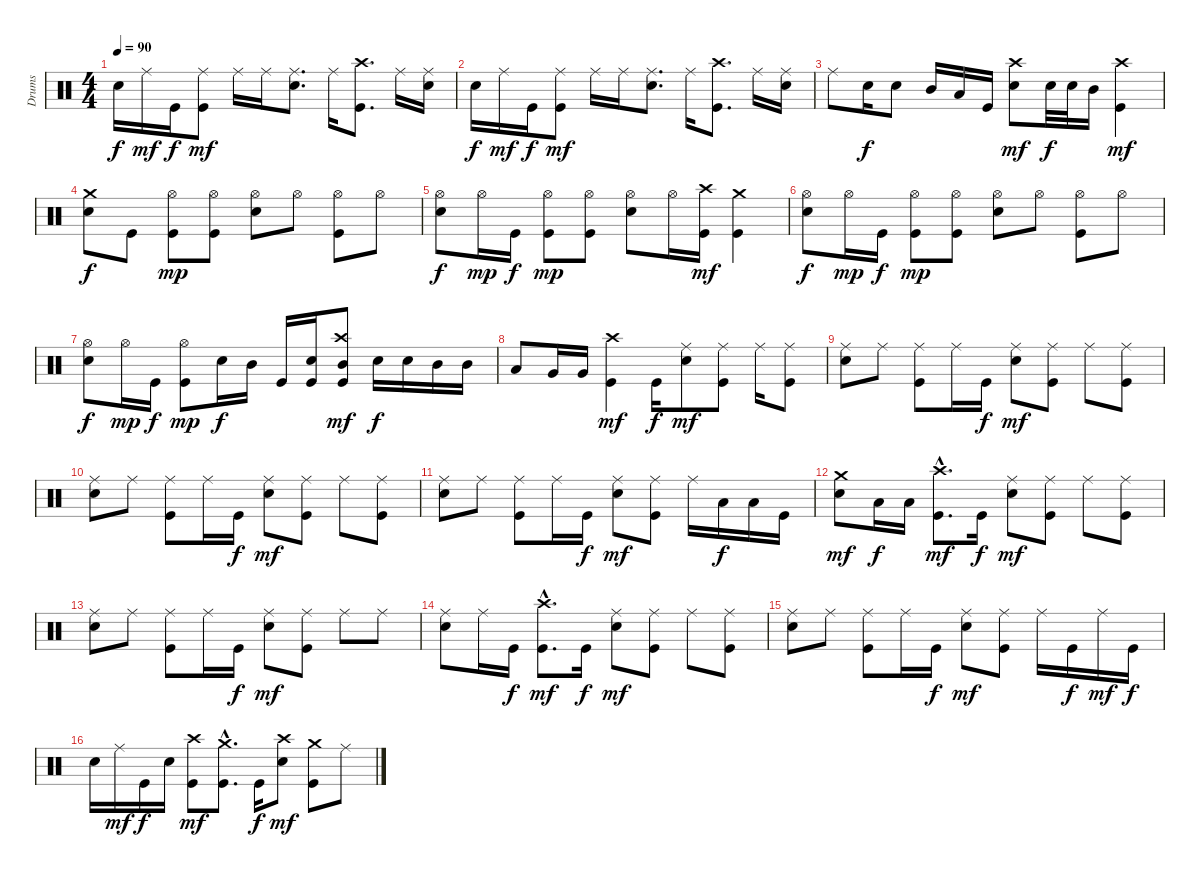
\track ("Drums" "Drums") {instrument percussion}
\staff {score}
\articulation defaults
\ts (4 4)
\tempo 90
\clef neutral
\ks c "Snare (hit) 2".16{dy f} "Ride (middle)".16{dy mf} "Kick (hit)".16{dy f}
("Ride (middle)" "Kick (hit)").8{dy mf} "Ride (middle)".16 "Ride (middle)".16 ("Ride (middle)" "Snare (hit) 2").8{d} "Ride (middle)".16 ("Crash high (hit)" "Kick (hit)").8{d} "Ride (middle)".16 ("Ride (middle)" "Snare (hit) 2").16 |
"Snare (hit) 2".16{dy f} "Ride (middle)".16{dy mf} "Kick (hit)".16{dy f} ("Ride (middle)" "Kick (hit)").8{dy mf} "Ride (middle)".16 "Ride (middle)".16 ("Ride (middle)" "Snare (hit) 2").8{d} "Ride (middle)".16 ("Crash high (hit)" "Kick (hit)").8{d} "Ride (middle)".16 ("Ride (middle)" "Snare (hit) 2").16 |
"Ride (middle)".8 "Snare (hit) 2".16{dy f} "Snare (hit) 2".8 "Mid Tom (hit)".16 "Low Tom (hit)".16 "Kick (hit)".16 ("Crash high (hit)" "Snare (hit) 2").8{dy mf} "Snare (hit) 2".32{dy f} "Snare (hit) 2".32 "Mid Tom (hit)".16 ("Crash high (hit)" "Kick (hit)").4{dy mf} |
("Crash medium (hit)" "Snare (hit) 2").8{dy f} "Kick (hit)".8 ("Hi-Hat (open)" "Kick (hit)").8{dy mp} ("Hi-Hat (open)" "Kick (hit)").8 ("Hi-Hat (open)" "Snare (hit) 2").8 "Hi-Hat (open)".8 ("Hi-Hat (open)" "Kick (hit)").8 "Hi-Hat (open)".8 |
("Hi-Hat (open)" "Snare (hit) 2").8{dy f} "Hi-Hat (open)".16{dy mp} "Kick (hit)".16{dy f} ("Hi-Hat (open)" "Kick (hit)").8{dy mp} ("Hi-Hat (open)" "Kick (hit)").8 ("Hi-Hat (open)" "Snare (hit) 2").8 "Hi-Hat (open)".16 ("Crash high (hit)" "Kick (hit)").16{dy mf} ("Crash medium (hit)" "Kick (hit)").4 |
("Hi-Hat (open)" "Snare (hit) 2").8{dy f} "Hi-Hat (open)".16{dy mp} "Kick (hit)".16{dy f} ("Hi-Hat (open)" "Kick (hit)").8{dy mp} ("Hi-Hat (open)" "Kick (hit)").8 ("Hi-Hat (open)" "Snare (hit) 2").8 "Hi-Hat (open)".8 ("Hi-Hat (open)" "Kick (hit)").8 "Hi-Hat (open)".8 |
("Hi-Hat (open)" "Snare (hit) 2").8{dy f} "Hi-Hat (open)".16{dy mp} "Kick (hit)".16{dy f} ("Hi-Hat (open)" "Kick (hit)").8{dy mp} "Snare (hit) 2".16{dy f} "Mid Tom (hit)".16 "Kick (hit)".16 ("Snare (hit) 2" "Kick (hit)").16 ("Crash high (hit)" "Kick (hit)" "Mid Tom (hit)").8{dy mf} "Snare (hit) 2".16{dy f} "Snare (hit) 2".16 "Mid Tom (hit)".16 "Mid Tom (hit)".16 |
"Low Tom (hit)".8 "Very Low Tom (hit)".16 "Very Low Tom (hit)".16 ("Crash high (hit)" "Kick (hit)").4{dy mf} "Kick (hit)".16{dy f} ("Ride (middle)" "Snare (hit) 2").8{dy mf} ("Ride (middle)" "Kick (hit)").8 "Ride (middle)".16 ("Ride (middle)" "Kick (hit)").8 |
("Ride (middle)" "Snare (hit) 2").8 "Ride (middle)".8 ("Ride (middle)" "Kick (hit)").8 "Ride (middle)".16 "Kick (hit)".16{dy f} ("Ride (middle)" "Snare (hit) 2").8{dy mf} ("Ride (middle)" "Kick (hit)").8 "Ride (middle)".8 ("Ride (middle)" "Kick (hit)").8 |
("Ride (middle)" "Snare (hit) 2").8 "Ride (middle)".8 ("Ride (middle)" "Kick (hit)").8 "Ride (middle)".16 "Kick (hit)".16{dy f} ("Ride (middle)" "Snare (hit) 2").8{dy mf} ("Ride (middle)" "Kick (hit)").8 "Ride (middle)".8 ("Ride (middle)" "Kick (hit)").8 |
("Ride (middle)" "Snare (hit) 2").8 "Ride (middle)".8 ("Ride (middle)" "Kick (hit)").8 "Ride (middle)".16 "Kick (hit)".16{dy f} ("Ride (middle)" "Snare (hit) 2").8{dy mf} ("Ride (middle)" "Kick (hit)").8 "Ride (middle)".16 "Low Tom (hit)".16{dy f} "Low Tom (hit)".16 "Kick (hit)".16 |
("Crash medium (hit)" "Snare (hit) 2").8{dy mf} "Low Tom (hit)".16{dy f} "Low Tom (hit)".16 ("Crash high (hit)"{hac} "Kick (hit)"{hac}).8{d dy mf} "Kick (hit)".16{dy f} ("Ride (middle)" "Snare (hit) 2").8{dy mf} ("Ride (middle)" "Kick (hit)").8 "Ride (middle)".8 ("Ride (middle)" "Kick (hit)").8 |
("Ride (middle)" "Snare (hit) 2").8 "Ride (middle)".8 ("Ride (middle)" "Kick (hit)").8 "Ride (middle)".16 "Kick (hit)".16{dy f} ("Ride (middle)" "Snare (hit) 2").8{dy mf} ("Ride (middle)" "Kick (hit)").8 "Ride (middle)".8 "Ride (middle)".8 |
("Ride (middle)" "Snare (hit) 2").8 "Ride (middle)".16 "Kick (hit)".16{dy f} ("Crash high (hit)"{hac} "Kick (hit)"{hac}).8{d dy mf} "Kick (hit)".16{dy f} ("Ride (middle)" "Snare (hit) 2").8{dy mf} ("Ride (middle)" "Kick (hit)").8 "Ride (middle)".8 ("Ride (middle)" "Kick (hit)").8 |
("Ride (middle)" "Snare (hit) 2").8 "Ride (middle)".8 ("Ride (middle)" "Kick (hit)").8 "Ride (middle)".16 "Kick (hit)".16{dy f} ("Ride (middle)" "Snare (hit) 2").8{dy mf} ("Ride (middle)" "Kick (hit)").8 "Ride (middle)".16 "Kick (hit)".16{dy f} "Ride (middle)".16{dy mf} "Kick (hit)".16{dy f} |
"Snare (hit) 2".16 "Ride (middle)".16{dy mf} "Kick (hit)".16{dy f} "Snare (hit) 2".16 ("Crash high (hit)" "Kick (hit)").8{dy mf} ("Crash medium (hit)"{hac} "Kick (hit)"{hac}).8{d} "Kick (hit)".16{dy f} ("Crash high (hit)" "Snare (hit) 2").8{dy mf} ("Crash medium (hit)" "Kick (hit)").8 "Ride (middle)".8
